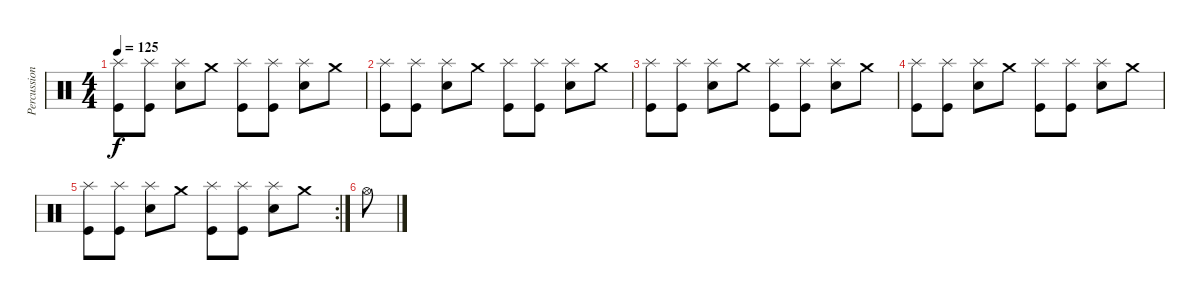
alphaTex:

\track ("Percussions" "Percussion") {instrument percussion}
\staff {score}
\articulation defaults
\ts (4 4)
\tempo 125
\clef neutral
\ks c
("Kick (hit)" "Splash (hit)").8{dy f} ("Kick (hit)" "Splash (hit)").8 ("Electric Snare (hit)" "Splash (hit)").8 "Crash medium (hit)".8 ("Kick (hit)" "Splash (hit)").8 ("Kick (hit)" "Splash (hit)").8 ("Electric Snare (hit)" "Splash (hit)").8 "Crash medium (hit)".8 |
("Kick (hit)" "Splash (hit)").8 ("Kick (hit)" "Splash (hit)").8 ("Electric Snare (hit)" "Splash (hit)").8 "Crash medium (hit)".8 ("Kick (hit)" "Splash (hit)").8 ("Kick (hit)" "Splash (hit)").8 ("Electric Snare (hit)" "Splash (hit)").8 "Crash medium (hit)".8 |
("Kick (hit)" "Splash (hit)").8 ("Kick (hit)" "Splash (hit)").8 ("Electric Snare (hit)" "Splash (hit)").8 "Crash medium (hit)".8 ("Kick (hit)" "Splash (hit)").8 ("Kick (hit)" "Splash (hit)").8 ("Electric Snare (hit)" "Splash (hit)").8 "Crash medium (hit)".8 |
("Kick (hit)" "Splash (hit)").8 ("Kick (hit)" "Splash (hit)").8 ("Electric Snare (hit)" "Splash (hit)").8 "Crash medium (hit)".8 ("Kick (hit)" "Splash (hit)").8 ("Kick (hit)" "Splash (hit)").8 ("Electric Snare (hit)" "Splash (hit)").8 "Crash medium (hit)".8 |
\rc 2
("Kick (hit)" "Splash (hit)").8 ("Kick (hit)" "Splash (hit)").8 ("Electric Snare (hit)" "Splash (hit)").8 "Crash medium (hit)".8 ("Kick (hit)" "Splash (hit)").8 ("Kick (hit)" "Splash (hit)").8 ("Electric Snare (hit)" "Splash (hit)").8 "Crash medium (hit)".8 |
"Hi-Hat (open)".8
